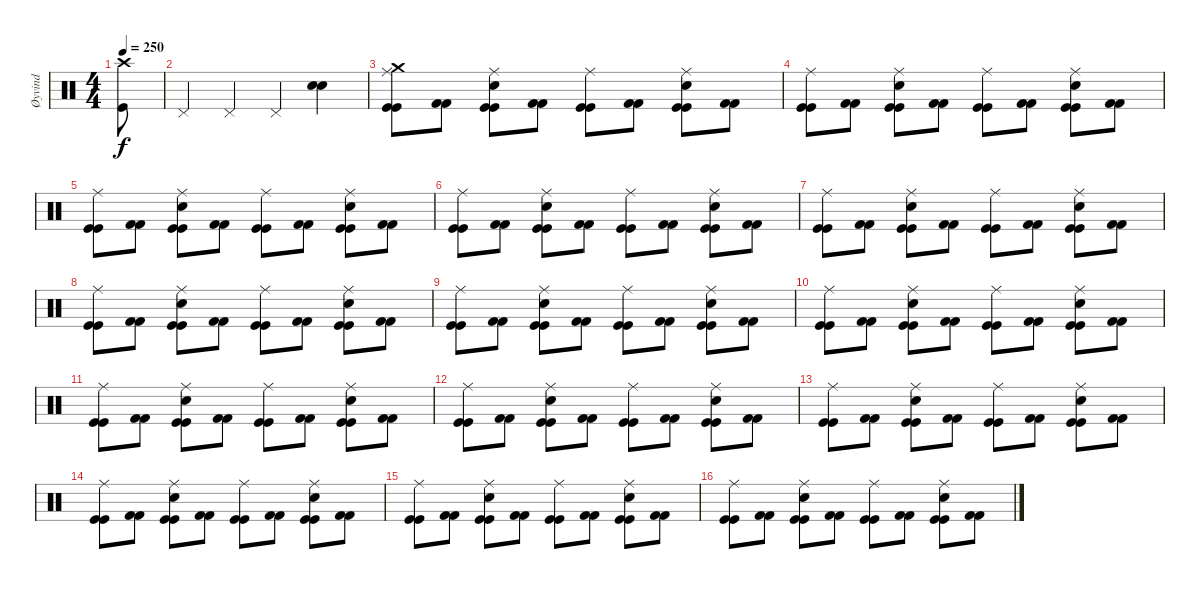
\track ("Øyvind" "Øyvind") {instrument percussion}
\staff {score}
\articulation defaults
\ts (4 4)
\tempo 250
\clef neutral
\ks c
("Crash high (hit)" "Kick (hit)").8{dy f} |
"Pedal Hi-Hat (hit)".4 "Pedal Hi-Hat (hit)".4 "Pedal Hi-Hat (hit)".4 ("Snare (hit) 2" "Snare (hit) 2").4 |
("Kick (hit)" "Crash medium (hit)" "Ride (middle)" "Kick (hit)").8 ("Kick (hit) 2" "Kick (hit) 2").8 ("Kick (hit)" "Snare (hit) 2" "Ride (middle)" "Kick (hit)").8 ("Kick (hit) 2" "Kick (hit) 2").8 ("Kick (hit)" "Ride (middle)" "Kick (hit)").8 ("Kick (hit) 2" "Kick (hit) 2").8 ("Kick (hit)" "Snare (hit) 2" "Ride (middle)" "Kick (hit)").8 ("Kick (hit) 2" "Kick (hit) 2").8 |
("Kick (hit)" "Ride (middle)" "Kick (hit)").8 ("Kick (hit) 2" "Kick (hit) 2").8 ("Kick (hit)" "Snare (hit) 2" "Ride (middle)" "Kick (hit)").8 ("Kick (hit) 2" "Kick (hit) 2").8 ("Kick (hit)" "Ride (middle)" "Kick (hit)").8 ("Kick (hit) 2" "Kick (hit) 2").8 ("Kick (hit)" "Snare (hit) 2" "Ride (middle)" "Kick (hit)").8 ("Kick (hit) 2" "Kick (hit) 2").8 |
("Kick (hit)" "Ride (middle)" "Kick (hit)").8 ("Kick (hit) 2" "Kick (hit) 2").8 ("Kick (hit)" "Snare (hit) 2" "Ride (middle)" "Kick (hit)").8 ("Kick (hit) 2" "Kick (hit) 2").8 ("Kick (hit)" "Ride (middle)" "Kick (hit)").8 ("Kick (hit) 2" "Kick (hit) 2").8 ("Kick (hit)" "Snare (hit) 2" "Ride (middle)" "Kick (hit)").8 ("Kick (hit) 2" "Kick (hit) 2").8 |
("Kick (hit)" "Ride (middle)" "Kick (hit)").8 ("Kick (hit) 2" "Kick (hit) 2").8 ("Kick (hit)" "Snare (hit) 2" "Ride (middle)" "Kick (hit)").8 ("Kick (hit) 2" "Kick (hit) 2").8 ("Kick (hit)" "Ride (middle)" "Kick (hit)").8 ("Kick (hit) 2" "Kick (hit) 2").8 ("Kick (hit)" "Snare (hit) 2" "Ride (middle)" "Kick (hit)").8 ("Kick (hit) 2" "Kick (hit) 2").8 |
("Kick (hit)" "Ride (middle)" "Kick (hit)").8 ("Kick (hit) 2" "Kick (hit) 2").8 ("Kick (hit)" "Snare (hit) 2" "Ride (middle)" "Kick (hit)").8 ("Kick (hit) 2" "Kick (hit) 2").8 ("Kick (hit)" "Ride (middle)" "Kick (hit)").8 ("Kick (hit) 2" "Kick (hit) 2").8 ("Kick (hit)" "Snare (hit) 2" "Ride (middle)" "Kick (hit)").8 ("Kick (hit) 2" "Kick (hit) 2").8 |
("Kick (hit)" "Ride (middle)" "Kick (hit)").8 ("Kick (hit) 2" "Kick (hit) 2").8 ("Kick (hit)" "Snare (hit) 2" "Ride (middle)" "Kick (hit)").8 ("Kick (hit) 2" "Kick (hit) 2").8 ("Kick (hit)" "Ride (middle)" "Kick (hit)").8 ("Kick (hit) 2" "Kick (hit) 2").8 ("Kick (hit)" "Snare (hit) 2" "Ride (middle)" "Kick (hit)").8 ("Kick (hit) 2" "Kick (hit) 2").8 |
("Kick (hit)" "Ride (middle)" "Kick (hit)").8 ("Kick (hit) 2" "Kick (hit) 2").8 ("Kick (hit)" "Snare (hit) 2" "Ride (middle)" "Kick (hit)").8 ("Kick (hit) 2" "Kick (hit) 2").8 ("Kick (hit)" "Ride (middle)" "Kick (hit)").8 ("Kick (hit) 2" "Kick (hit) 2").8 ("Kick (hit)" "Snare (hit) 2" "Ride (middle)" "Kick (hit)").8 ("Kick (hit) 2" "Kick (hit) 2").8 |
("Kick (hit)" "Ride (middle)" "Kick (hit)").8 ("Kick (hit) 2" "Kick (hit) 2").8 ("Kick (hit)" "Snare (hit) 2" "Ride (middle)" "Kick (hit)").8 ("Kick (hit) 2" "Kick (hit) 2").8 ("Kick (hit)" "Ride (middle)" "Kick (hit)").8 ("Kick (hit) 2" "Kick (hit) 2").8 ("Kick (hit)" "Snare (hit) 2" "Ride (middle)" "Kick (hit)").8 ("Kick (hit) 2" "Kick (hit) 2").8 |
("Kick (hit)" "Ride (middle)" "Kick (hit)").8 ("Kick (hit) 2" "Kick (hit) 2").8 ("Kick (hit)" "Snare (hit) 2" "Ride (middle)" "Kick (hit)").8 ("Kick (hit) 2" "Kick (hit) 2").8 ("Kick (hit)" "Ride (middle)" "Kick (hit)").8 ("Kick (hit) 2" "Kick (hit) 2").8 ("Kick (hit)" "Snare (hit) 2" "Ride (middle)" "Kick (hit)").8 ("Kick (hit) 2" "Kick (hit) 2").8 |
("Kick (hit)" "Ride (middle)" "Kick (hit)").8 ("Kick (hit) 2" "Kick (hit) 2").8 ("Kick (hit)" "Snare (hit) 2" "Ride (middle)" "Kick (hit)").8 ("Kick (hit) 2" "Kick (hit) 2").8 ("Kick (hit)" "Ride (middle)" "Kick (hit)").8 ("Kick (hit) 2" "Kick (hit) 2").8 ("Kick (hit)" "Snare (hit) 2" "Ride (middle)" "Kick (hit)").8 ("Kick (hit) 2" "Kick (hit) 2").8 |
("Kick (hit)" "Ride (middle)" "Kick (hit)").8 ("Kick (hit) 2" "Kick (hit) 2").8 ("Kick (hit)" "Snare (hit) 2" "Ride (middle)" "Kick (hit)").8 ("Kick (hit) 2" "Kick (hit) 2").8 ("Kick (hit)" "Ride (middle)" "Kick (hit)").8 ("Kick (hit) 2" "Kick (hit) 2").8 ("Kick (hit)" "Snare (hit) 2" "Ride (middle)" "Kick (hit)").8 ("Kick (hit) 2" "Kick (hit) 2").8 |
("Kick (hit)" "Ride (middle)" "Kick (hit)").8 ("Kick (hit) 2" "Kick (hit) 2").8 ("Kick (hit)" "Snare (hit) 2" "Ride (middle)" "Kick (hit)").8 ("Kick (hit) 2" "Kick (hit) 2").8 ("Kick (hit)" "Ride (middle)" "Kick (hit)").8 ("Kick (hit) 2" "Kick (hit) 2").8 ("Kick (hit)" "Snare (hit) 2" "Ride (middle)" "Kick (hit)").8 ("Kick (hit) 2" "Kick (hit) 2").8 |
("Kick (hit)" "Ride (middle)" "Kick (hit)").8 ("Kick (hit) 2" "Kick (hit) 2").8 ("Kick (hit)" "Snare (hit) 2" "Ride (middle)" "Kick (hit)").8 ("Kick (hit) 2" "Kick (hit) 2").8 ("Kick (hit)" "Ride (middle)" "Kick (hit)").8 ("Kick (hit) 2" "Kick (hit) 2").8 ("Kick (hit)" "Snare (hit) 2" "Ride (middle)" "Kick (hit)").8 ("Kick (hit) 2" "Kick (hit) 2").8 |
("Kick (hit)" "Ride (middle)" "Kick (hit)").8 ("Kick (hit) 2" "Kick (hit) 2").8 ("Kick (hit)" "Snare (hit) 2" "Ride (middle)" "Kick (hit)").8 ("Kick (hit) 2" "Kick (hit) 2").8 ("Kick (hit)" "Ride (middle)" "Kick (hit)").8 ("Kick (hit) 2" "Kick (hit) 2").8 ("Kick (hit)" "Snare (hit) 2" "Ride (middle)" "Kick (hit)").8 ("Kick (hit) 2" "Kick (hit) 2").8
